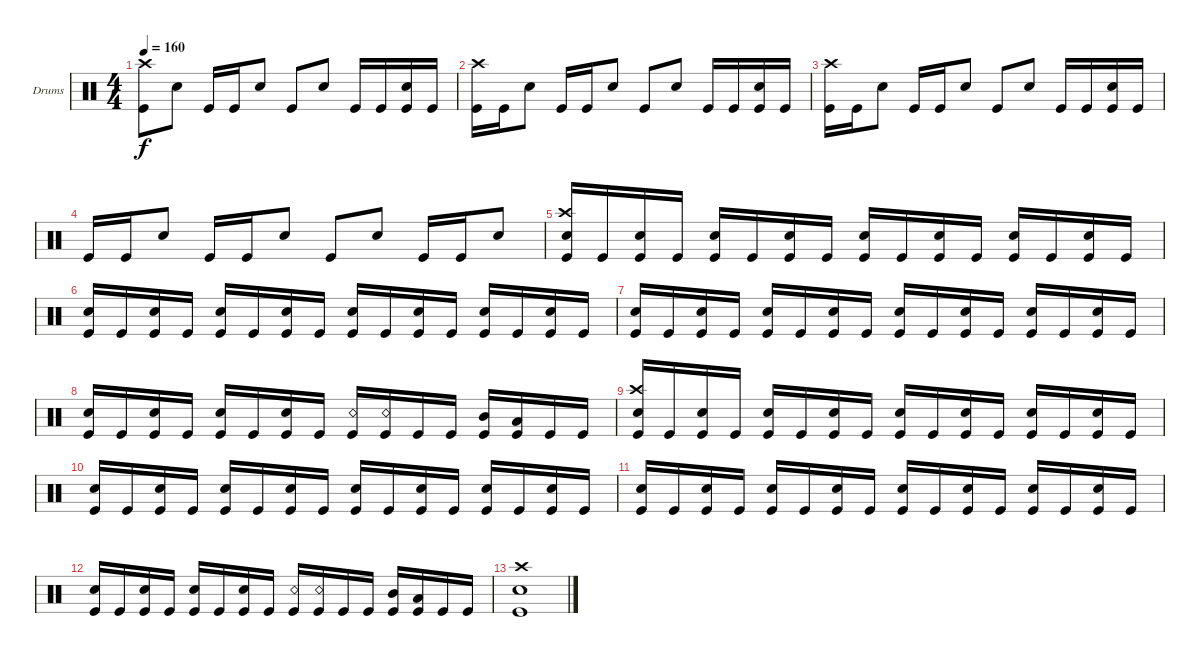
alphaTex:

\defaultSystemsLayout 4
\bracketExtendMode groupsimilarinstruments
\firstSystemTrackNameOrientation horizontal
\otherSystemsTrackNameOrientation horizontal
\track ("Drumkit" "Drums") {instrument percussion}
\staff {score}
\articulation defaults
\ts (4 4)
\tempo 160
\clef neutral
\ks c
("Kick (hit)" "Crash high (hit)").8{dy f} "Snare (hit) 2".8 "Kick (hit)".16 "Kick (hit)".16 "Snare (hit) 2".8 "Kick (hit)".8 "Snare (hit) 2".8 "Kick (hit)".16 "Kick (hit)".16 ("Kick (hit)" "Snare (hit) 2").16 "Kick (hit)".16 |
("Kick (hit)" "Crash high (hit)").16 "Kick (hit)".16 "Snare (hit) 2".8 "Kick (hit)".16 "Kick (hit)".16 "Snare (hit) 2".8 "Kick (hit)".8 "Snare (hit) 2".8 "Kick (hit)".16 "Kick (hit)".16 ("Kick (hit)" "Snare (hit) 2").16 "Kick (hit)".16 |
("Kick (hit)" "Crash high (hit)").16 "Kick (hit)".16 "Snare (hit) 2".8 "Kick (hit)".16 "Kick (hit)".16 "Snare (hit) 2".8 "Kick (hit)".8 "Snare (hit) 2".8 "Kick (hit)".16 "Kick (hit)".16 ("Snare (hit) 2" "Kick (hit)").16 "Kick (hit)".16 |
"Kick (hit)".16 "Kick (hit)".16 "Snare (hit) 2".8 "Kick (hit)".16 "Kick (hit)".16 "Snare (hit) 2".8 "Kick (hit)".8 "Snare (hit) 2".8 "Kick (hit)".16 "Kick (hit)".16 "Snare (hit) 2".8 |
("Snare (hit) 2" "Crash high (hit)" "Kick (hit)").16 "Kick (hit)".16 ("Snare (hit) 2" "Kick (hit)").16 "Kick (hit)".16 ("Snare (hit) 2" "Kick (hit)").16 "Kick (hit)".16 ("Snare (hit) 2" "Kick (hit)").16 "Kick (hit)".16 ("Snare (hit) 2" "Kick (hit)").16 "Kick (hit)".16 ("Snare (hit) 2" "Kick (hit)").16 "Kick (hit)".16 ("Snare (hit) 2" "Kick (hit)").16 "Kick (hit)".16 ("Snare (hit) 2" "Kick (hit)").16 "Kick (hit)".16 |
("Snare (hit) 2" "Kick (hit)").16 "Kick (hit)".16 ("Snare (hit) 2" "Kick (hit)").16 "Kick (hit)".16 ("Snare (hit) 2" "Kick (hit)").16 "Kick (hit)".16 ("Snare (hit) 2" "Kick (hit)").16 "Kick (hit)".16 ("Snare (hit) 2" "Kick (hit)").16 "Kick (hit)".16 ("Snare (hit) 2" "Kick (hit)").16 "Kick (hit)".16 ("Snare (hit) 2" "Kick (hit)").16 "Kick (hit)".16 ("Snare (hit) 2" "Kick (hit)").16 "Kick (hit)".16 |
("Snare (hit) 2" "Kick (hit)").16 "Kick (hit)".16 ("Snare (hit) 2" "Kick (hit)").16 "Kick (hit)".16 ("Snare (hit) 2" "Kick (hit)").16 "Kick (hit)".16 ("Snare (hit) 2" "Kick (hit)").16 "Kick (hit)".16 ("Snare (hit) 2" "Kick (hit)").16 "Kick (hit)".16 ("Snare (hit) 2" "Kick (hit)").16 "Kick (hit)".16 ("Snare (hit) 2" "Kick (hit)").16 "Kick (hit)".16 ("Snare (hit) 2" "Kick (hit)").16 "Kick (hit)".16 |
("Snare (hit) 2" "Kick (hit)").16 "Kick (hit)".16 ("Snare (hit) 2" "Kick (hit)").16 "Kick (hit)".16 ("Snare (hit) 2" "Kick (hit)").16 "Kick (hit)".16 ("Snare (hit) 2" "Kick (hit)").16 "Kick (hit)".16 ("Kick (hit)" "Snare (rim shot)").16 ("Kick (hit)" "Snare (rim shot)").16 "Kick (hit)".16 "Kick (hit)".16 ("Kick (hit)" "Mid Tom (hit)").16 ("Kick (hit)" "Low Tom (hit)").16 "Kick (hit)".16 "Kick (hit)".16 |
("Snare (hit) 2" "Crash high (hit)" "Kick (hit)").16 "Kick (hit)".16 ("Snare (hit) 2" "Kick (hit)").16 "Kick (hit)".16 ("Snare (hit) 2" "Kick (hit)").16 "Kick (hit)".16 ("Snare (hit) 2" "Kick (hit)").16 "Kick (hit)".16 ("Snare (hit) 2" "Kick (hit)").16 "Kick (hit)".16 ("Snare (hit) 2" "Kick (hit)").16 "Kick (hit)".16 ("Snare (hit) 2" "Kick (hit)").16 "Kick (hit)".16 ("Snare (hit) 2" "Kick (hit)").16 "Kick (hit)".16 |
("Snare (hit) 2" "Kick (hit)").16 "Kick (hit)".16 ("Snare (hit) 2" "Kick (hit)").16 "Kick (hit)".16 ("Snare (hit) 2" "Kick (hit)").16 "Kick (hit)".16 ("Snare (hit) 2" "Kick (hit)").16 "Kick (hit)".16 ("Snare (hit) 2" "Kick (hit)").16 "Kick (hit)".16 ("Snare (hit) 2" "Kick (hit)").16 "Kick (hit)".16 ("Snare (hit) 2" "Kick (hit)").16 "Kick (hit)".16 ("Snare (hit) 2" "Kick (hit)").16 "Kick (hit)".16 |
("Snare (hit) 2" "Kick (hit)").16 "Kick (hit)".16 ("Snare (hit) 2" "Kick (hit)").16 "Kick (hit)".16 ("Snare (hit) 2" "Kick (hit)").16 "Kick (hit)".16 ("Snare (hit) 2" "Kick (hit)").16 "Kick (hit)".16 ("Snare (hit) 2" "Kick (hit)").16 "Kick (hit)".16 ("Snare (hit) 2" "Kick (hit)").16 "Kick (hit)".16 ("Snare (hit) 2" "Kick (hit)").16 "Kick (hit)".16 ("Snare (hit) 2" "Kick (hit)").16 "Kick (hit)".16 |
("Snare (hit) 2" "Kick (hit)").16 "Kick (hit)".16 ("Snare (hit) 2" "Kick (hit)").16 "Kick (hit)".16 ("Snare (hit) 2" "Kick (hit)").16 "Kick (hit)".16 ("Snare (hit) 2" "Kick (hit)").16 "Kick (hit)".16 ("Kick (hit)" "Snare (rim shot)").16 ("Kick (hit)" "Snare (rim shot)").16 "Kick (hit)".16 "Kick (hit)".16 ("Kick (hit)" "Mid Tom (hit)").16 ("Kick (hit)" "Low Tom (hit)").16 "Kick (hit)".16 "Kick (hit)".16 |
("Kick (hit)" "Snare (hit) 2" "Crash high (hit)").1
